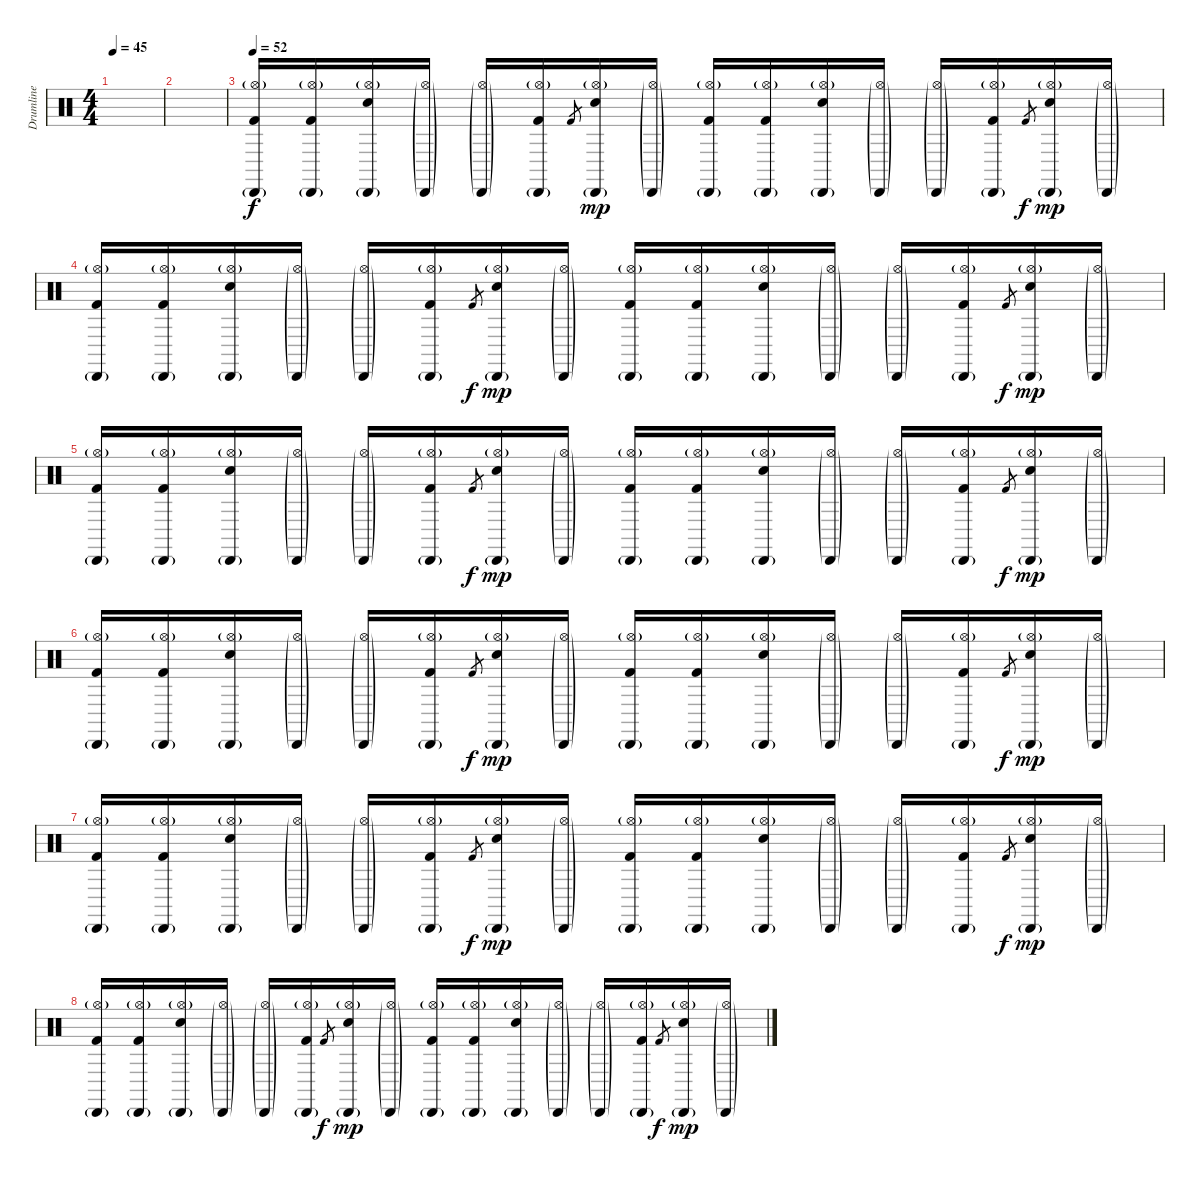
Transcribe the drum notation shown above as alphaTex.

\track ("Drumline" "Drumline") {instrument percussion}
\staff {score}
\articulation defaults
\ts (4 4)
\tempo 45
\clef neutral
\ks c
|
|
\tempo 52
("Hi-Hat (open)"{g} "Cabasa (hit)"{g} "Kick (hit) 2").16 ("Hi-Hat (open)"{g} "Cabasa (hit)"{g} "Kick (hit) 2").16 ("Hi-Hat (open)"{g} "Cabasa (hit)"{g} "Snare (hit) 2").16 ("Hi-Hat (open)"{g} "Cabasa (hit)"{g}).16 ("Hi-Hat (open)"{g} "Cabasa (hit)"{g}).16 ("Hi-Hat (open)"{g} "Cabasa (hit)"{g} "Kick (hit) 2").16 "Kick (hit) 2".8{gr dy f} ("Hi-Hat (open)"{g} "Cabasa (hit)"{g} "Snare (hit) 2").16{dy mp} ("Hi-Hat (open)"{g} "Cabasa (hit)"{g}).16 ("Hi-Hat (open)"{g} "Cabasa (hit)"{g} "Kick (hit) 2").16 ("Hi-Hat (open)"{g} "Cabasa (hit)"{g} "Kick (hit) 2").16 ("Hi-Hat (open)"{g} "Cabasa (hit)"{g} "Snare (hit) 2").16 ("Hi-Hat (open)"{g} "Cabasa (hit)"{g}).16 ("Hi-Hat (open)"{g} "Cabasa (hit)"{g}).16 ("Hi-Hat (open)"{g} "Cabasa (hit)"{g} "Kick (hit) 2").16 "Kick (hit) 2".8{gr dy f} ("Hi-Hat (open)"{g} "Cabasa (hit)"{g} "Snare (hit) 2").16{dy mp} ("Hi-Hat (open)"{g} "Cabasa (hit)"{g}).16 |
("Hi-Hat (open)"{g} "Cabasa (hit)"{g} "Kick (hit) 2").16 ("Hi-Hat (open)"{g} "Cabasa (hit)"{g} "Kick (hit) 2").16 ("Hi-Hat (open)"{g} "Cabasa (hit)"{g} "Snare (hit) 2").16 ("Hi-Hat (open)"{g} "Cabasa (hit)"{g}).16 ("Hi-Hat (open)"{g} "Cabasa (hit)"{g}).16 ("Hi-Hat (open)"{g} "Cabasa (hit)"{g} "Kick (hit) 2").16 "Kick (hit) 2".8{gr dy f} ("Hi-Hat (open)"{g} "Cabasa (hit)"{g} "Snare (hit) 2").16{dy mp} ("Hi-Hat (open)"{g} "Cabasa (hit)"{g}).16 ("Hi-Hat (open)"{g} "Cabasa (hit)"{g} "Kick (hit) 2").16 ("Hi-Hat (open)"{g} "Cabasa (hit)"{g} "Kick (hit) 2").16 ("Hi-Hat (open)"{g} "Cabasa (hit)"{g} "Snare (hit) 2").16 ("Hi-Hat (open)"{g} "Cabasa (hit)"{g}).16 ("Hi-Hat (open)"{g} "Cabasa (hit)"{g}).16 ("Hi-Hat (open)"{g} "Cabasa (hit)"{g} "Kick (hit) 2").16 "Kick (hit) 2".8{gr dy f} ("Hi-Hat (open)"{g} "Cabasa (hit)"{g} "Snare (hit) 2").16{dy mp} ("Hi-Hat (open)"{g} "Cabasa (hit)"{g}).16 |
("Hi-Hat (open)"{g} "Cabasa (hit)"{g} "Kick (hit) 2").16 ("Hi-Hat (open)"{g} "Cabasa (hit)"{g} "Kick (hit) 2").16 ("Hi-Hat (open)"{g} "Cabasa (hit)"{g} "Snare (hit) 2").16 ("Hi-Hat (open)"{g} "Cabasa (hit)"{g}).16 ("Hi-Hat (open)"{g} "Cabasa (hit)"{g}).16 ("Hi-Hat (open)"{g} "Cabasa (hit)"{g} "Kick (hit) 2").16 "Kick (hit) 2".8{gr dy f} ("Hi-Hat (open)"{g} "Cabasa (hit)"{g} "Snare (hit) 2").16{dy mp} ("Hi-Hat (open)"{g} "Cabasa (hit)"{g}).16 ("Hi-Hat (open)"{g} "Cabasa (hit)"{g} "Kick (hit) 2").16 ("Hi-Hat (open)"{g} "Cabasa (hit)"{g} "Kick (hit) 2").16 ("Hi-Hat (open)"{g} "Cabasa (hit)"{g} "Snare (hit) 2").16 ("Hi-Hat (open)"{g} "Cabasa (hit)"{g}).16 ("Hi-Hat (open)"{g} "Cabasa (hit)"{g}).16 ("Hi-Hat (open)"{g} "Cabasa (hit)"{g} "Kick (hit) 2").16 "Kick (hit) 2".8{gr dy f} ("Hi-Hat (open)"{g} "Cabasa (hit)"{g} "Snare (hit) 2").16{dy mp} ("Hi-Hat (open)"{g} "Cabasa (hit)"{g}).16 |
("Hi-Hat (open)"{g} "Cabasa (hit)"{g} "Kick (hit) 2").16 ("Hi-Hat (open)"{g} "Cabasa (hit)"{g} "Kick (hit) 2").16 ("Hi-Hat (open)"{g} "Cabasa (hit)"{g} "Snare (hit) 2").16 ("Hi-Hat (open)"{g} "Cabasa (hit)"{g}).16 ("Hi-Hat (open)"{g} "Cabasa (hit)"{g}).16 ("Hi-Hat (open)"{g} "Cabasa (hit)"{g} "Kick (hit) 2").16 "Kick (hit) 2".8{gr dy f} ("Hi-Hat (open)"{g} "Cabasa (hit)"{g} "Snare (hit) 2").16{dy mp} ("Hi-Hat (open)"{g} "Cabasa (hit)"{g}).16 ("Hi-Hat (open)"{g} "Cabasa (hit)"{g} "Kick (hit) 2").16 ("Hi-Hat (open)"{g} "Cabasa (hit)"{g} "Kick (hit) 2").16 ("Hi-Hat (open)"{g} "Cabasa (hit)"{g} "Snare (hit) 2").16 ("Hi-Hat (open)"{g} "Cabasa (hit)"{g}).16 ("Hi-Hat (open)"{g} "Cabasa (hit)"{g}).16 ("Hi-Hat (open)"{g} "Cabasa (hit)"{g} "Kick (hit) 2").16 "Kick (hit) 2".8{gr dy f} ("Hi-Hat (open)"{g} "Cabasa (hit)"{g} "Snare (hit) 2").16{dy mp} ("Hi-Hat (open)"{g} "Cabasa (hit)"{g}).16 |
("Hi-Hat (open)"{g} "Cabasa (hit)"{g} "Kick (hit) 2").16 ("Hi-Hat (open)"{g} "Cabasa (hit)"{g} "Kick (hit) 2").16 ("Hi-Hat (open)"{g} "Cabasa (hit)"{g} "Snare (hit) 2").16 ("Hi-Hat (open)"{g} "Cabasa (hit)"{g}).16 ("Hi-Hat (open)"{g} "Cabasa (hit)"{g}).16 ("Hi-Hat (open)"{g} "Cabasa (hit)"{g} "Kick (hit) 2").16 "Kick (hit) 2".8{gr dy f} ("Hi-Hat (open)"{g} "Cabasa (hit)"{g} "Snare (hit) 2").16{dy mp} ("Hi-Hat (open)"{g} "Cabasa (hit)"{g}).16 ("Hi-Hat (open)"{g} "Cabasa (hit)"{g} "Kick (hit) 2").16 ("Hi-Hat (open)"{g} "Cabasa (hit)"{g} "Kick (hit) 2").16 ("Hi-Hat (open)"{g} "Cabasa (hit)"{g} "Snare (hit) 2").16 ("Hi-Hat (open)"{g} "Cabasa (hit)"{g}).16 ("Hi-Hat (open)"{g} "Cabasa (hit)"{g}).16 ("Hi-Hat (open)"{g} "Cabasa (hit)"{g} "Kick (hit) 2").16 "Kick (hit) 2".8{gr dy f} ("Hi-Hat (open)"{g} "Cabasa (hit)"{g} "Snare (hit) 2").16{dy mp} ("Hi-Hat (open)"{g} "Cabasa (hit)"{g}).16 |
("Hi-Hat (open)"{g} "Cabasa (hit)"{g} "Kick (hit) 2").16 ("Hi-Hat (open)"{g} "Cabasa (hit)"{g} "Kick (hit) 2").16 ("Hi-Hat (open)"{g} "Cabasa (hit)"{g} "Snare (hit) 2").16 ("Hi-Hat (open)"{g} "Cabasa (hit)"{g}).16 ("Hi-Hat (open)"{g} "Cabasa (hit)"{g}).16 ("Hi-Hat (open)"{g} "Cabasa (hit)"{g} "Kick (hit) 2").16 "Kick (hit) 2".8{gr dy f} ("Hi-Hat (open)"{g} "Cabasa (hit)"{g} "Snare (hit) 2").16{dy mp} ("Hi-Hat (open)"{g} "Cabasa (hit)"{g}).16 ("Hi-Hat (open)"{g} "Cabasa (hit)"{g} "Kick (hit) 2").16 ("Hi-Hat (open)"{g} "Cabasa (hit)"{g} "Kick (hit) 2").16 ("Hi-Hat (open)"{g} "Cabasa (hit)"{g} "Snare (hit) 2").16 ("Hi-Hat (open)"{g} "Cabasa (hit)"{g}).16 ("Hi-Hat (open)"{g} "Cabasa (hit)"{g}).16 ("Hi-Hat (open)"{g} "Cabasa (hit)"{g} "Kick (hit) 2").16 "Kick (hit) 2".8{gr dy f} ("Hi-Hat (open)"{g} "Cabasa (hit)"{g} "Snare (hit) 2").16{dy mp} ("Hi-Hat (open)"{g} "Cabasa (hit)"{g}).16
